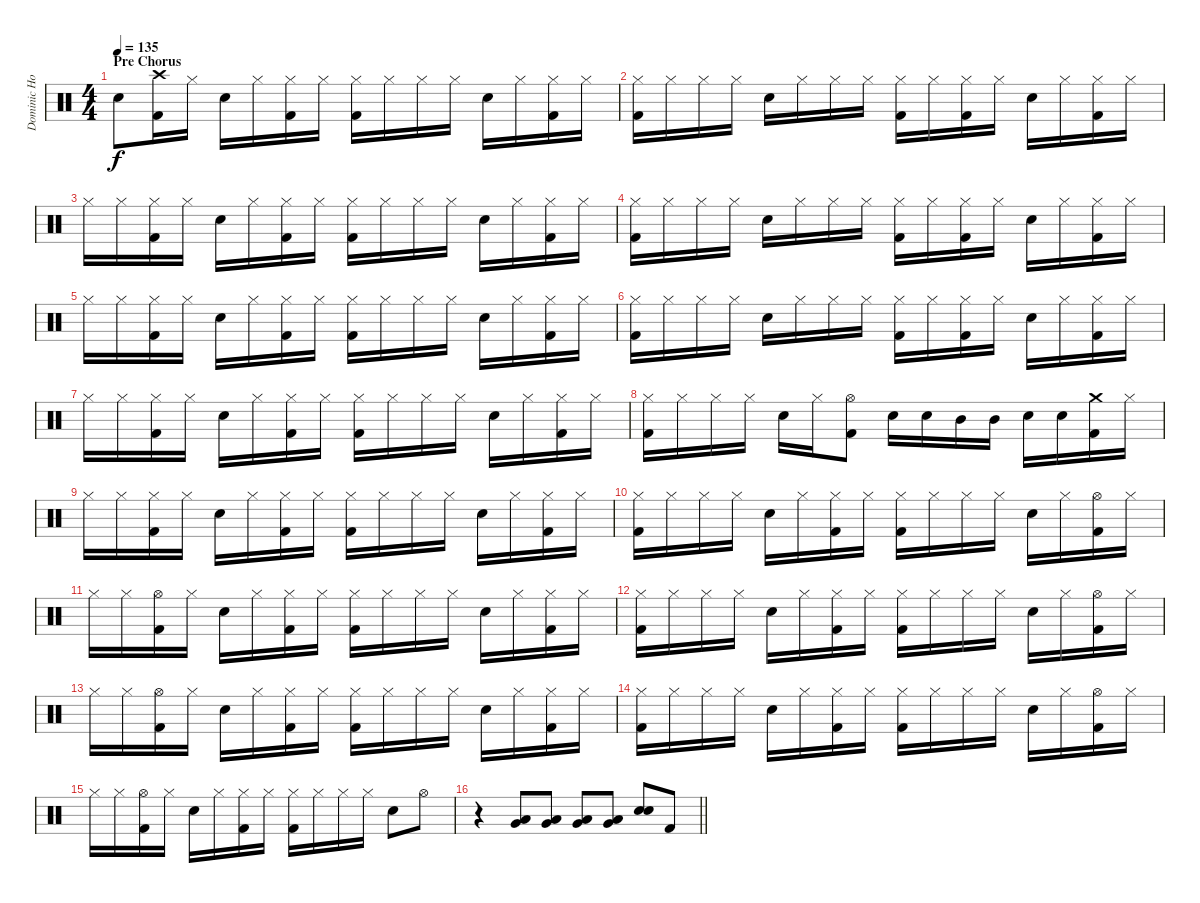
\track ("Dominic Howard (Drums)" "Dominic Ho") {instrument percussion}
\staff {score}
\articulation defaults
\ts (4 4)
\section ("" "Pre Chorus")
\tempo 135
\clef neutral
\ks c "Electric Snare (hit)".8{dy f}
("Crash high (hit)" "Kick (hit) 2").16 "Hi-Hat (closed)".16 "Electric Snare (hit)".16 "Hi-Hat (closed)".16 ("Hi-Hat (closed)" "Kick (hit) 2").16 "Hi-Hat (closed)".16 ("Hi-Hat (closed)" "Kick (hit) 2").16 "Hi-Hat (closed)".16 "Hi-Hat (closed)".16 "Hi-Hat (closed)".16 "Electric Snare (hit)".16 "Hi-Hat (closed)".16 ("Hi-Hat (closed)" "Kick (hit) 2").16 "Hi-Hat (closed)".16 |
("Hi-Hat (closed)" "Kick (hit) 2").16 "Hi-Hat (closed)".16 "Hi-Hat (closed)".16 "Hi-Hat (closed)".16 "Electric Snare (hit)".16 "Hi-Hat (closed)".16 "Hi-Hat (closed)".16 "Hi-Hat (closed)".16 ("Hi-Hat (closed)" "Kick (hit) 2").16 "Hi-Hat (closed)".16 ("Hi-Hat (closed)" "Kick (hit) 2").16 "Hi-Hat (closed)".16 "Electric Snare (hit)".16 "Hi-Hat (closed)".16 ("Hi-Hat (closed)" "Kick (hit) 2").16 "Hi-Hat (closed)".16 |
"Hi-Hat (closed)".16 "Hi-Hat (closed)".16 ("Hi-Hat (closed)" "Kick (hit) 2").16 "Hi-Hat (closed)".16 "Electric Snare (hit)".16 "Hi-Hat (closed)".16 ("Hi-Hat (closed)" "Kick (hit) 2").16 "Hi-Hat (closed)".16 ("Hi-Hat (closed)" "Kick (hit) 2").16 "Hi-Hat (closed)".16 "Hi-Hat (closed)".16 "Hi-Hat (closed)".16 "Electric Snare (hit)".16 "Hi-Hat (closed)".16 ("Hi-Hat (closed)" "Kick (hit) 2").16 "Hi-Hat (closed)".16 |
("Hi-Hat (closed)" "Kick (hit) 2").16 "Hi-Hat (closed)".16 "Hi-Hat (closed)".16 "Hi-Hat (closed)".16 "Electric Snare (hit)".16 "Hi-Hat (closed)".16 "Hi-Hat (closed)".16 "Hi-Hat (closed)".16 ("Hi-Hat (closed)" "Kick (hit) 2").16 "Hi-Hat (closed)".16 ("Hi-Hat (closed)" "Kick (hit) 2").16 "Hi-Hat (closed)".16 "Electric Snare (hit)".16 "Hi-Hat (closed)".16 ("Hi-Hat (closed)" "Kick (hit) 2").16 "Hi-Hat (closed)".16 |
"Hi-Hat (closed)".16 "Hi-Hat (closed)".16 ("Hi-Hat (closed)" "Kick (hit) 2").16 "Hi-Hat (closed)".16 "Electric Snare (hit)".16 "Hi-Hat (closed)".16 ("Hi-Hat (closed)" "Kick (hit) 2").16 "Hi-Hat (closed)".16 ("Hi-Hat (closed)" "Kick (hit) 2").16 "Hi-Hat (closed)".16 "Hi-Hat (closed)".16 "Hi-Hat (closed)".16 "Electric Snare (hit)".16 "Hi-Hat (closed)".16 ("Hi-Hat (closed)" "Kick (hit) 2").16 "Hi-Hat (closed)".16 |
("Hi-Hat (closed)" "Kick (hit) 2").16 "Hi-Hat (closed)".16 "Hi-Hat (closed)".16 "Hi-Hat (closed)".16 "Electric Snare (hit)".16 "Hi-Hat (closed)".16 "Hi-Hat (closed)".16 "Hi-Hat (closed)".16 ("Hi-Hat (closed)" "Kick (hit) 2").16 "Hi-Hat (closed)".16 ("Hi-Hat (closed)" "Kick (hit) 2").16 "Hi-Hat (closed)".16 "Electric Snare (hit)".16 "Hi-Hat (closed)".16 ("Hi-Hat (closed)" "Kick (hit) 2").16 "Hi-Hat (closed)".16 |
"Hi-Hat (closed)".16 "Hi-Hat (closed)".16 ("Hi-Hat (closed)" "Kick (hit) 2").16 "Hi-Hat (closed)".16 "Electric Snare (hit)".16 "Hi-Hat (closed)".16 ("Hi-Hat (closed)" "Kick (hit) 2").16 "Hi-Hat (closed)".16 ("Hi-Hat (closed)" "Kick (hit) 2").16 "Hi-Hat (closed)".16 "Hi-Hat (closed)".16 "Hi-Hat (closed)".16 "Electric Snare (hit)".16 "Hi-Hat (closed)".16 ("Hi-Hat (closed)" "Kick (hit) 2").16 "Hi-Hat (closed)".16 |
("Hi-Hat (closed)" "Kick (hit) 2").16 "Hi-Hat (closed)".16 "Hi-Hat (closed)".16 "Hi-Hat (closed)".16 "Electric Snare (hit)".16 "Hi-Hat (closed)".16 ("Hi-Hat (open)" "Kick (hit) 2").8 "Electric Snare (hit)".16 "Electric Snare (hit)".16 "Mid Tom (hit)".16 "Mid Tom (hit)".16 "Electric Snare (hit)".16 "Electric Snare (hit)".16 ("Crash medium (hit)" "Kick (hit) 2").16 "Hi-Hat (closed)".16 |
"Hi-Hat (closed)".16 "Hi-Hat (closed)".16 ("Hi-Hat (closed)" "Kick (hit) 2").16 "Hi-Hat (closed)".16 "Electric Snare (hit)".16 "Hi-Hat (closed)".16 ("Hi-Hat (closed)" "Kick (hit) 2").16 "Hi-Hat (closed)".16 ("Hi-Hat (closed)" "Kick (hit) 2").16 "Hi-Hat (closed)".16 "Hi-Hat (closed)".16 "Hi-Hat (closed)".16 "Electric Snare (hit)".16 "Hi-Hat (closed)".16 ("Hi-Hat (closed)" "Kick (hit) 2").16 "Hi-Hat (closed)".16 |
("Hi-Hat (closed)" "Kick (hit) 2").16 "Hi-Hat (closed)".16 "Hi-Hat (closed)".16 "Hi-Hat (closed)".16 "Electric Snare (hit)".16 "Hi-Hat (closed)".16 ("Hi-Hat (closed)" "Kick (hit) 2").16 "Hi-Hat (closed)".16 ("Hi-Hat (closed)" "Kick (hit) 2").16 "Hi-Hat (closed)".16 "Hi-Hat (closed)".16 "Hi-Hat (closed)".16 "Electric Snare (hit)".16 "Hi-Hat (closed)".16 ("Hi-Hat (open)" "Kick (hit) 2").16 "Hi-Hat (closed)".16 |
"Hi-Hat (closed)".16 "Hi-Hat (closed)".16 ("Hi-Hat (open)" "Kick (hit) 2").16 "Hi-Hat (closed)".16 "Electric Snare (hit)".16 "Hi-Hat (closed)".16 ("Hi-Hat (closed)" "Kick (hit) 2").16 "Hi-Hat (closed)".16 ("Hi-Hat (closed)" "Kick (hit) 2").16 "Hi-Hat (closed)".16 "Hi-Hat (closed)".16 "Hi-Hat (closed)".16 "Electric Snare (hit)".16 "Hi-Hat (closed)".16 ("Hi-Hat (closed)" "Kick (hit) 2").16 "Hi-Hat (closed)".16 |
("Hi-Hat (closed)" "Kick (hit) 2").16 "Hi-Hat (closed)".16 "Hi-Hat (closed)".16 "Hi-Hat (closed)".16 "Electric Snare (hit)".16 "Hi-Hat (closed)".16 ("Hi-Hat (closed)" "Kick (hit) 2").16 "Hi-Hat (closed)".16 ("Hi-Hat (closed)" "Kick (hit) 2").16 "Hi-Hat (closed)".16 "Hi-Hat (closed)".16 "Hi-Hat (closed)".16 "Electric Snare (hit)".16 "Hi-Hat (closed)".16 ("Hi-Hat (open)" "Kick (hit) 2").16 "Hi-Hat (closed)".16 |
"Hi-Hat (closed)".16 "Hi-Hat (closed)".16 ("Hi-Hat (open)" "Kick (hit) 2").16 "Hi-Hat (closed)".16 "Electric Snare (hit)".16 "Hi-Hat (closed)".16 ("Hi-Hat (closed)" "Kick (hit) 2").16 "Hi-Hat (closed)".16 ("Hi-Hat (closed)" "Kick (hit) 2").16 "Hi-Hat (closed)".16 "Hi-Hat (closed)".16 "Hi-Hat (closed)".16 "Electric Snare (hit)".16 "Hi-Hat (closed)".16 ("Hi-Hat (closed)" "Kick (hit) 2").16 "Hi-Hat (closed)".16 |
("Hi-Hat (closed)" "Kick (hit) 2").16 "Hi-Hat (closed)".16 "Hi-Hat (closed)".16 "Hi-Hat (closed)".16 "Electric Snare (hit)".16 "Hi-Hat (closed)".16 ("Hi-Hat (closed)" "Kick (hit) 2").16 "Hi-Hat (closed)".16 ("Hi-Hat (closed)" "Kick (hit) 2").16 "Hi-Hat (closed)".16 "Hi-Hat (closed)".16 "Hi-Hat (closed)".16 "Electric Snare (hit)".16 "Hi-Hat (closed)".16 ("Hi-Hat (open)" "Kick (hit) 2").16 "Hi-Hat (closed)".16 |
"Hi-Hat (closed)".16 "Hi-Hat (closed)".16 ("Hi-Hat (open)" "Kick (hit) 2").16 "Hi-Hat (closed)".16 "Electric Snare (hit)".16 "Hi-Hat (closed)".16 ("Hi-Hat (closed)" "Kick (hit) 2").16 "Hi-Hat (closed)".16 ("Hi-Hat (closed)" "Kick (hit) 2").16 "Hi-Hat (closed)".16 "Hi-Hat (closed)".16 "Hi-Hat (closed)".16 "Electric Snare (hit)".8 "Hi-Hat (open)".8 |
\barLineRight lightlight
r.4 ("Very Low Tom (hit)" "Low Tom (hit)").8 ("Very Low Tom (hit)" "Low Tom (hit)").8 ("Very Low Tom (hit)" "Low Tom (hit)").8 ("Very Low Tom (hit)" "Low Tom (hit)").8 ("Electric Snare (hit)" "Electric Snare (hit)").8 "Kick (hit) 2".8
